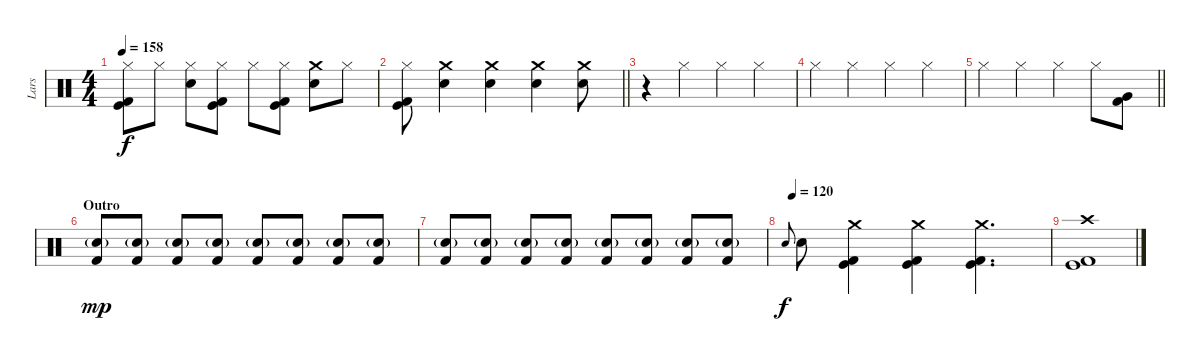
\track ("Lars" "Lars") {instrument percussion}
\staff {score}
\articulation defaults
\ts (4 4)
\tempo 158
\clef neutral
\ks c
("Hi-Hat (closed)" "Kick (hit)" "Kick (hit) 2").8{dy f} "Hi-Hat (closed)".8 ("Hi-Hat (closed)" "Electric Snare (hit)").8 ("Hi-Hat (closed)" "Kick (hit)" "Kick (hit) 2").8 "Hi-Hat (closed)".8 ("Hi-Hat (closed)" "Kick (hit)" "Kick (hit) 2").8 ("Crash medium (hit)" "Electric Snare (hit)").8 "Hi-Hat (closed)".8 |
\barLineRight lightlight
("Hi-Hat (closed)" "Kick (hit)" "Kick (hit) 2").8 ("Crash medium (hit)" "Electric Snare (hit)").4 ("Crash medium (hit)" "Electric Snare (hit)").4 ("Crash medium (hit)" "Electric Snare (hit)").4 ("Crash medium (hit)" "Electric Snare (hit)").8 |
r.4 "Hi-Hat (closed)".4 "Hi-Hat (closed)".4 "Hi-Hat (closed)".4 |
"Hi-Hat (closed)".4 "Hi-Hat (closed)".4 "Hi-Hat (closed)".4 "Hi-Hat (closed)".4 |
\barLineRight lightlight "Hi-Hat (closed)".4 "Hi-Hat (closed)".4 "Hi-Hat (closed)".4 "Hi-Hat (closed)".8
("Kick (hit) 2" "Very Low Tom (hit)").8 |
\section ("" "Outro")
("Electric Snare (hit)"{g} "Kick (hit) 2").8{dy mp} ("Electric Snare (hit)"{g} "Kick (hit) 2").8 ("Electric Snare (hit)"{g} "Kick (hit) 2").8 ("Electric Snare (hit)"{g} "Kick (hit) 2").8 ("Electric Snare (hit)"{g} "Kick (hit) 2").8 ("Electric Snare (hit)"{g} "Kick (hit) 2").8 ("Electric Snare (hit)"{g} "Kick (hit) 2").8 ("Electric Snare (hit)"{g} "Kick (hit) 2").8 |
("Electric Snare (hit)"{g} "Kick (hit) 2").8 ("Electric Snare (hit)"{g} "Kick (hit) 2").8 ("Electric Snare (hit)"{g} "Kick (hit) 2").8 ("Electric Snare (hit)"{g} "Kick (hit) 2").8 ("Electric Snare (hit)"{g} "Kick (hit) 2").8 ("Electric Snare (hit)"{g} "Kick (hit) 2").8 ("Electric Snare (hit)"{g} "Kick (hit) 2").8 ("Electric Snare (hit)"{g} "Kick (hit) 2").8 |
\tempo (120 0.03125)
"Electric Snare (hit)".8{gr onbeat dy f} "Electric Snare (hit)".8 ("Crash medium (hit)" "Kick (hit)" "Kick (hit) 2").4 ("Crash medium (hit)" "Kick (hit)" "Kick (hit) 2").4 ("Crash medium (hit)" "Kick (hit)" "Kick (hit) 2").4{d} |
("Crash high (hit)" "Kick (hit)" "Kick (hit) 2").1
